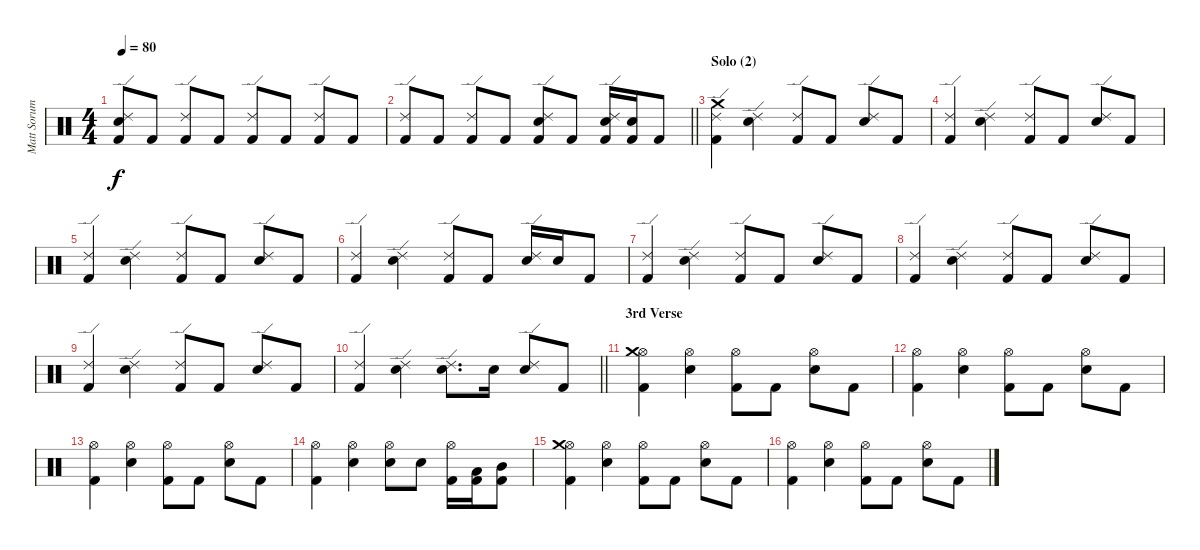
\track ("Matt Sorum" "Matt Sorum") {instrument percussion}
\staff {score}
\articulation defaults
\ts (4 4)
\tempo 80
\clef neutral
\ks c
("Electric Snare (hit)" "Ride (edge) 2" "Kick (hit) 2").8{dy f} "Kick (hit) 2".8 ("Ride (edge) 2" "Kick (hit) 2").8 "Kick (hit) 2".8 ("Ride (edge) 2" "Kick (hit) 2").8 "Kick (hit) 2".8 ("Ride (edge) 2" "Kick (hit) 2").8 "Kick (hit) 2".8 |
\barLineRight lightlight
("Ride (edge) 2" "Kick (hit) 2").8 "Kick (hit) 2".8 ("Ride (edge) 2" "Kick (hit) 2").8 "Kick (hit) 2".8 ("Electric Snare (hit)" "Ride (edge) 2" "Kick (hit) 2").8 "Kick (hit) 2".8 ("Electric Snare (hit)" "Ride (edge) 2" "Kick (hit) 2").16 ("Electric Snare (hit)" "Kick (hit) 2").16 "Kick (hit) 2".8 |
\section ("" "Solo (2)")
("Ride (edge) 2" "Kick (hit) 2" "Crash medium (hit)").4 ("Electric Snare (hit)" "Ride (edge) 2").4 ("Ride (edge) 2" "Kick (hit) 2").8 "Kick (hit) 2".8 ("Electric Snare (hit)" "Ride (edge) 2").8 "Kick (hit) 2".8 |
("Ride (edge) 2" "Kick (hit) 2").4 ("Electric Snare (hit)" "Ride (edge) 2").4 ("Ride (edge) 2" "Kick (hit) 2").8 "Kick (hit) 2".8 ("Electric Snare (hit)" "Ride (edge) 2").8 "Kick (hit) 2".8 |
("Ride (edge) 2" "Kick (hit) 2").4 ("Electric Snare (hit)" "Ride (edge) 2").4 ("Ride (edge) 2" "Kick (hit) 2").8 "Kick (hit) 2".8 ("Electric Snare (hit)" "Ride (edge) 2").8 "Kick (hit) 2".8 |
("Ride (edge) 2" "Kick (hit) 2").4 ("Electric Snare (hit)" "Ride (edge) 2").4 ("Ride (edge) 2" "Kick (hit) 2").8 "Kick (hit) 2".8 ("Electric Snare (hit)" "Ride (edge) 2").16 "Electric Snare (hit)".16 "Kick (hit) 2".8 |
("Ride (edge) 2" "Kick (hit) 2").4 ("Electric Snare (hit)" "Ride (edge) 2").4 ("Ride (edge) 2" "Kick (hit) 2").8 "Kick (hit) 2".8 ("Electric Snare (hit)" "Ride (edge) 2").8 "Kick (hit) 2".8 |
("Ride (edge) 2" "Kick (hit) 2").4 ("Electric Snare (hit)" "Ride (edge) 2").4 ("Ride (edge) 2" "Kick (hit) 2").8 "Kick (hit) 2".8 ("Electric Snare (hit)" "Ride (edge) 2").8 "Kick (hit) 2".8 |
("Ride (edge) 2" "Kick (hit) 2").4 ("Electric Snare (hit)" "Ride (edge) 2").4 ("Ride (edge) 2" "Kick (hit) 2").8 "Kick (hit) 2".8 ("Electric Snare (hit)" "Ride (edge) 2").8 "Kick (hit) 2".8 |
\barLineRight lightlight
("Ride (edge) 2" "Kick (hit) 2").4 ("Electric Snare (hit)" "Ride (edge) 2").4 ("Electric Snare (hit)" "Ride (edge) 2").8{d} "Electric Snare (hit)".16 ("Electric Snare (hit)" "Ride (edge) 2").8 "Kick (hit) 2".8 |
\section ("" "3rd Verse")
("Hi-Hat (open)" "Kick (hit) 2" "Crash medium (hit)").4 ("Electric Snare (hit)" "Hi-Hat (open)").4 ("Hi-Hat (open)" "Kick (hit) 2").8 "Kick (hit) 2".8 ("Electric Snare (hit)" "Hi-Hat (open)").8 "Kick (hit) 2".8 |
("Hi-Hat (open)" "Kick (hit) 2").4 ("Electric Snare (hit)" "Hi-Hat (open)").4 ("Hi-Hat (open)" "Kick (hit) 2").8 "Kick (hit) 2".8 ("Electric Snare (hit)" "Hi-Hat (open)").8 "Kick (hit) 2".8 |
("Hi-Hat (open)" "Kick (hit) 2").4 ("Electric Snare (hit)" "Hi-Hat (open)").4 ("Hi-Hat (open)" "Kick (hit) 2").8 "Kick (hit) 2".8 ("Electric Snare (hit)" "Hi-Hat (open)").8 "Kick (hit) 2".8 |
("Hi-Hat (open)" "Kick (hit) 2").4 ("Electric Snare (hit)" "Hi-Hat (open)").4 ("Electric Snare (hit)" "Hi-Hat (open)").8 "Electric Snare (hit)".8 ("Hi-Hat (open)" "Kick (hit) 2").16 ("Low Tom (hit)" "Kick (hit) 2").16 ("Mid Tom (hit)" "Kick (hit) 2").8 |
("Hi-Hat (open)" "Kick (hit) 2" "Crash medium (hit)").4 ("Electric Snare (hit)" "Hi-Hat (open)").4 ("Hi-Hat (open)" "Kick (hit) 2").8 "Kick (hit) 2".8 ("Electric Snare (hit)" "Hi-Hat (open)").8 "Kick (hit) 2".8 |
("Hi-Hat (open)" "Kick (hit) 2").4 ("Electric Snare (hit)" "Hi-Hat (open)").4 ("Hi-Hat (open)" "Kick (hit) 2").8 "Kick (hit) 2".8 ("Electric Snare (hit)" "Hi-Hat (open)").8 "Kick (hit) 2".8
